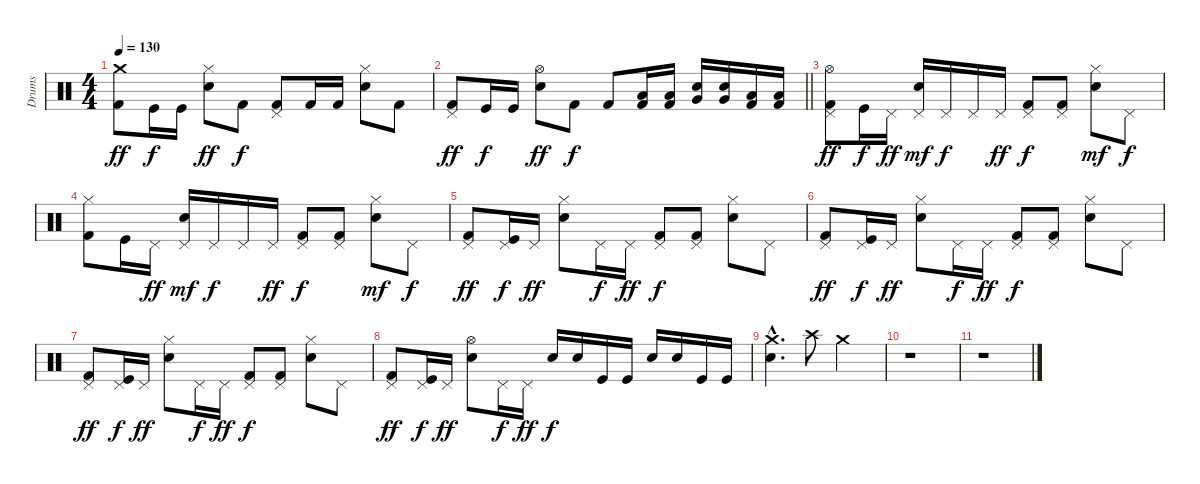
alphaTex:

\track ("Drums" "Drums") {instrument percussion}
\staff {score}
\articulation defaults
\ts (4 4)
\tempo 130
\clef neutral
\ks c
("Crash medium (hit)" "Kick (hit) 2").8{dy ff} "Kick (hit)".16{dy f} "Kick (hit)".16 ("Hi-Hat (closed)" "Snare (hit) 2").8{dy ff} "Kick (hit) 2".8{dy f} ("Pedal Hi-Hat (hit)" "Kick (hit) 2").8 "Kick (hit) 2".16 "Kick (hit) 2".16 ("Hi-Hat (closed)" "Snare (hit) 2").8 "Kick (hit) 2".8 |
\barLineRight lightlight
("Pedal Hi-Hat (hit)" "Kick (hit) 2").8{dy ff} "Kick (hit)".16{dy f} "Kick (hit)".16 ("Hi-Hat (open)" "Snare (hit) 2").8{dy ff} "Kick (hit) 2".8{dy f} "Kick (hit) 2".8 ("Low Tom (hit)" "Kick (hit) 2").16 ("Low Tom (hit)" "Kick (hit) 2").16 ("Very Low Tom (hit)" "Snare (hit) 2").16 ("Very Low Tom (hit)" "Snare (hit) 2").16 ("Low Floor Tom (hit)" "Kick (hit) 2").16 ("Low Floor Tom (hit)" "Kick (hit) 2").16 |
("Pedal Hi-Hat (hit)" "Kick (hit) 2" "Hi-Hat (open)").8{dy ff} "Kick (hit)".16{dy f} "Pedal Hi-Hat (hit)".16{dy ff} ("Pedal Hi-Hat (hit)" "Snare (hit) 2").16{dy mf} "Pedal Hi-Hat (hit)".16{dy f} "Pedal Hi-Hat (hit)".16 "Pedal Hi-Hat (hit)".16{dy ff} ("Pedal Hi-Hat (hit)" "Kick (hit) 2").8{dy f} ("Pedal Hi-Hat (hit)" "Kick (hit) 2").8 ("Hi-Hat (closed)" "Snare (hit) 2").8{dy mf} "Pedal Hi-Hat (hit)".8{dy f} |
("Hi-Hat (closed)" "Kick (hit) 2").8 "Kick (hit)".16 "Pedal Hi-Hat (hit)".16{dy ff} ("Pedal Hi-Hat (hit)" "Snare (hit) 2").16{dy mf} "Pedal Hi-Hat (hit)".16{dy f} "Pedal Hi-Hat (hit)".16 "Pedal Hi-Hat (hit)".16{dy ff} ("Pedal Hi-Hat (hit)" "Kick (hit) 2").8{dy f} ("Pedal Hi-Hat (hit)" "Kick (hit) 2").8 ("Hi-Hat (closed)" "Snare (hit) 2").8{dy mf} "Pedal Hi-Hat (hit)".8{dy f} |
("Pedal Hi-Hat (hit)" "Kick (hit) 2").8{dy ff} ("Pedal Hi-Hat (hit)" "Kick (hit)").16{dy f} "Pedal Hi-Hat (hit)".16{dy ff} ("Hi-Hat (closed)" "Snare (hit) 2").8 "Pedal Hi-Hat (hit)".16{dy f} "Pedal Hi-Hat (hit)".16{dy ff} ("Pedal Hi-Hat (hit)" "Kick (hit) 2").8{dy f} ("Pedal Hi-Hat (hit)" "Kick (hit) 2").8 ("Hi-Hat (closed)" "Snare (hit) 2").8 "Pedal Hi-Hat (hit)".8 |
("Pedal Hi-Hat (hit)" "Kick (hit) 2").8{dy ff} ("Pedal Hi-Hat (hit)" "Kick (hit)").16{dy f} "Pedal Hi-Hat (hit)".16{dy ff} ("Hi-Hat (closed)" "Snare (hit) 2").8 "Pedal Hi-Hat (hit)".16{dy f} "Pedal Hi-Hat (hit)".16{dy ff} ("Pedal Hi-Hat (hit)" "Kick (hit) 2").8{dy f} ("Pedal Hi-Hat (hit)" "Kick (hit) 2").8 ("Hi-Hat (closed)" "Snare (hit) 2").8 "Pedal Hi-Hat (hit)".8 |
("Pedal Hi-Hat (hit)" "Kick (hit) 2").8{dy ff} ("Pedal Hi-Hat (hit)" "Kick (hit)").16{dy f} "Pedal Hi-Hat (hit)".16{dy ff} ("Hi-Hat (closed)" "Snare (hit) 2").8 "Pedal Hi-Hat (hit)".16{dy f} "Pedal Hi-Hat (hit)".16{dy ff} ("Pedal Hi-Hat (hit)" "Kick (hit) 2").8{dy f} ("Pedal Hi-Hat (hit)" "Kick (hit) 2").8 ("Hi-Hat (closed)" "Snare (hit) 2").8 "Pedal Hi-Hat (hit)".8 |
("Pedal Hi-Hat (hit)" "Kick (hit) 2").8{dy ff} ("Pedal Hi-Hat (hit)" "Kick (hit)").16{dy f} "Pedal Hi-Hat (hit)".16{dy ff} ("Hi-Hat (open)" "Snare (hit) 2").8 "Pedal Hi-Hat (hit)".16{dy f} "Pedal Hi-Hat (hit)".16{dy ff} "Snare (hit) 2".16{dy f} "Snare (hit) 2".16 "Kick (hit)".16 "Kick (hit)".16 "Snare (hit) 2".16 "Snare (hit) 2".16 "Kick (hit)".16 "Kick (hit)".16 |
("Crash medium (hit)"{hac} "Electric Snare (hit)"{hac}).4{d} "Crash high (hit)".8 "Crash medium (hit)".2 |
r.1 |
r.1
